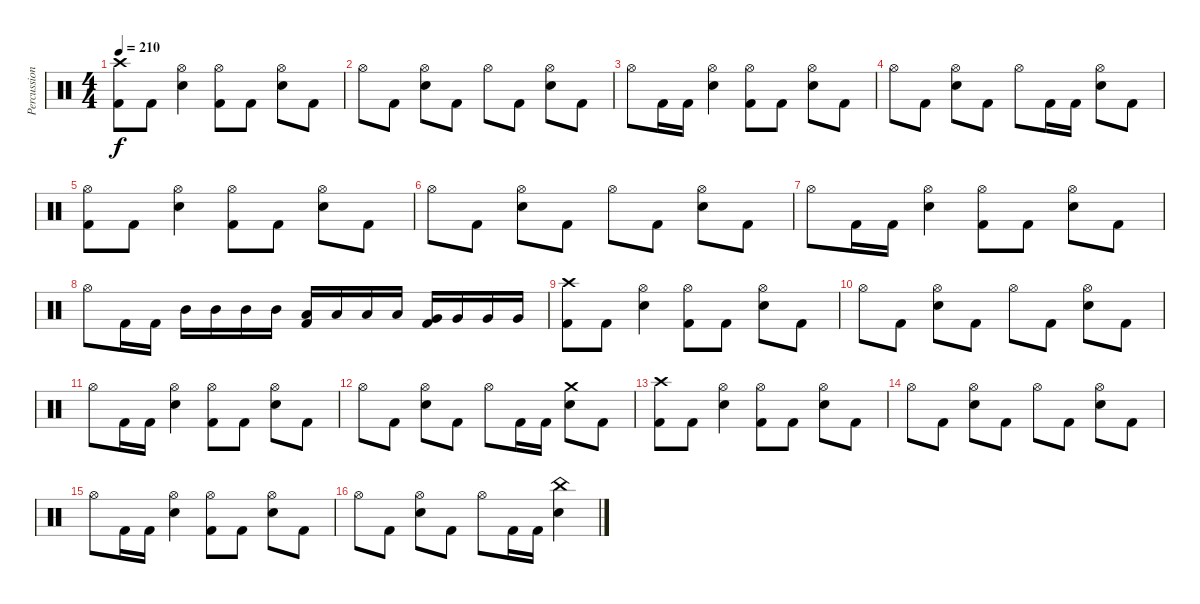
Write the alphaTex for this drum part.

\track ("Percussion" "Percussion") {instrument percussion}
\staff {score}
\articulation defaults
\ts (4 4)
\tempo 210
\clef neutral
\ks c
("Crash high (hit)" "Kick (hit) 2").8{dy f} "Kick (hit) 2".8 ("Hi-Hat (open)" "Electric Snare (hit)").4 ("Hi-Hat (open)" "Kick (hit) 2").8 "Kick (hit) 2".8 ("Hi-Hat (open)" "Electric Snare (hit)").8 "Kick (hit) 2".8 |
"Hi-Hat (open)".8 "Kick (hit) 2".8 ("Hi-Hat (open)" "Electric Snare (hit)").8 "Kick (hit) 2".8 "Hi-Hat (open)".8 "Kick (hit) 2".8 ("Hi-Hat (open)" "Electric Snare (hit)").8 "Kick (hit) 2".8 |
"Hi-Hat (open)".8 "Kick (hit) 2".16 "Kick (hit) 2".16 ("Hi-Hat (open)" "Electric Snare (hit)").4 ("Hi-Hat (open)" "Kick (hit) 2").8 "Kick (hit) 2".8 ("Hi-Hat (open)" "Electric Snare (hit)").8 "Kick (hit) 2".8 |
"Hi-Hat (open)".8 "Kick (hit) 2".8 ("Hi-Hat (open)" "Electric Snare (hit)").8 "Kick (hit) 2".8 "Hi-Hat (open)".8 "Kick (hit) 2".16 "Kick (hit) 2".16 ("Hi-Hat (open)" "Electric Snare (hit)").8 "Kick (hit) 2".8 |
("Hi-Hat (open)" "Kick (hit) 2").8 "Kick (hit) 2".8 ("Hi-Hat (open)" "Electric Snare (hit)").4 ("Hi-Hat (open)" "Kick (hit) 2").8 "Kick (hit) 2".8 ("Hi-Hat (open)" "Electric Snare (hit)").8 "Kick (hit) 2".8 |
"Hi-Hat (open)".8 "Kick (hit) 2".8 ("Hi-Hat (open)" "Electric Snare (hit)").8 "Kick (hit) 2".8 "Hi-Hat (open)".8 "Kick (hit) 2".8 ("Hi-Hat (open)" "Electric Snare (hit)").8 "Kick (hit) 2".8 |
"Hi-Hat (open)".8 "Kick (hit) 2".16 "Kick (hit) 2".16 ("Hi-Hat (open)" "Electric Snare (hit)").4 ("Hi-Hat (open)" "Kick (hit) 2").8 "Kick (hit) 2".8 ("Hi-Hat (open)" "Electric Snare (hit)").8 "Kick (hit) 2".8 |
"Hi-Hat (open)".8 "Kick (hit) 2".16 "Kick (hit) 2".16 "Mid Tom (hit)".16 "Mid Tom (hit)".16 "Mid Tom (hit)".16 "Mid Tom (hit)".16 ("Low Tom (hit)" "Kick (hit) 2").16 "Low Tom (hit)".16 "Low Tom (hit)".16 "Low Tom (hit)".16 ("Very Low Tom (hit)" "Kick (hit) 2").16 "Very Low Tom (hit)".16 "Very Low Tom (hit)".16 "Very Low Tom (hit)".16 |
("Crash high (hit)" "Kick (hit) 2").8 "Kick (hit) 2".8 ("Hi-Hat (open)" "Electric Snare (hit)").4 ("Hi-Hat (open)" "Kick (hit) 2").8 "Kick (hit) 2".8 ("Hi-Hat (open)" "Electric Snare (hit)").8 "Kick (hit) 2".8 |
"Hi-Hat (open)".8 "Kick (hit) 2".8 ("Hi-Hat (open)" "Electric Snare (hit)").8 "Kick (hit) 2".8 "Hi-Hat (open)".8 "Kick (hit) 2".8 ("Hi-Hat (open)" "Electric Snare (hit)").8 "Kick (hit) 2".8 |
"Hi-Hat (open)".8 "Kick (hit) 2".16 "Kick (hit) 2".16 ("Hi-Hat (open)" "Electric Snare (hit)").4 ("Hi-Hat (open)" "Kick (hit) 2").8 "Kick (hit) 2".8 ("Hi-Hat (open)" "Electric Snare (hit)").8 "Kick (hit) 2".8 |
"Hi-Hat (open)".8 "Kick (hit) 2".8 ("Hi-Hat (open)" "Electric Snare (hit)").8 "Kick (hit) 2".8 "Hi-Hat (open)".8 "Kick (hit) 2".16 "Kick (hit) 2".16 ("Crash medium (hit)" "Electric Snare (hit)").8 "Kick (hit) 2".8 |
("Crash high (hit)" "Kick (hit) 2").8 "Kick (hit) 2".8 ("Hi-Hat (open)" "Electric Snare (hit)").4 ("Hi-Hat (open)" "Kick (hit) 2").8 "Kick (hit) 2".8 ("Hi-Hat (open)" "Electric Snare (hit)").8 "Kick (hit) 2".8 |
"Hi-Hat (open)".8 "Kick (hit) 2".8 ("Hi-Hat (open)" "Electric Snare (hit)").8 "Kick (hit) 2".8 "Hi-Hat (open)".8 "Kick (hit) 2".8 ("Hi-Hat (open)" "Electric Snare (hit)").8 "Kick (hit) 2".8 |
"Hi-Hat (open)".8 "Kick (hit) 2".16 "Kick (hit) 2".16 ("Hi-Hat (open)" "Electric Snare (hit)").4 ("Hi-Hat (open)" "Kick (hit) 2").8 "Kick (hit) 2".8 ("Hi-Hat (open)" "Electric Snare (hit)").8 "Kick (hit) 2".8 |
"Hi-Hat (open)".8 "Kick (hit) 2".8 ("Hi-Hat (open)" "Electric Snare (hit)").8 "Kick (hit) 2".8 "Hi-Hat (open)".8 "Kick (hit) 2".16 "Kick (hit) 2".16 ("China (hit)" "Electric Snare (hit)").4
